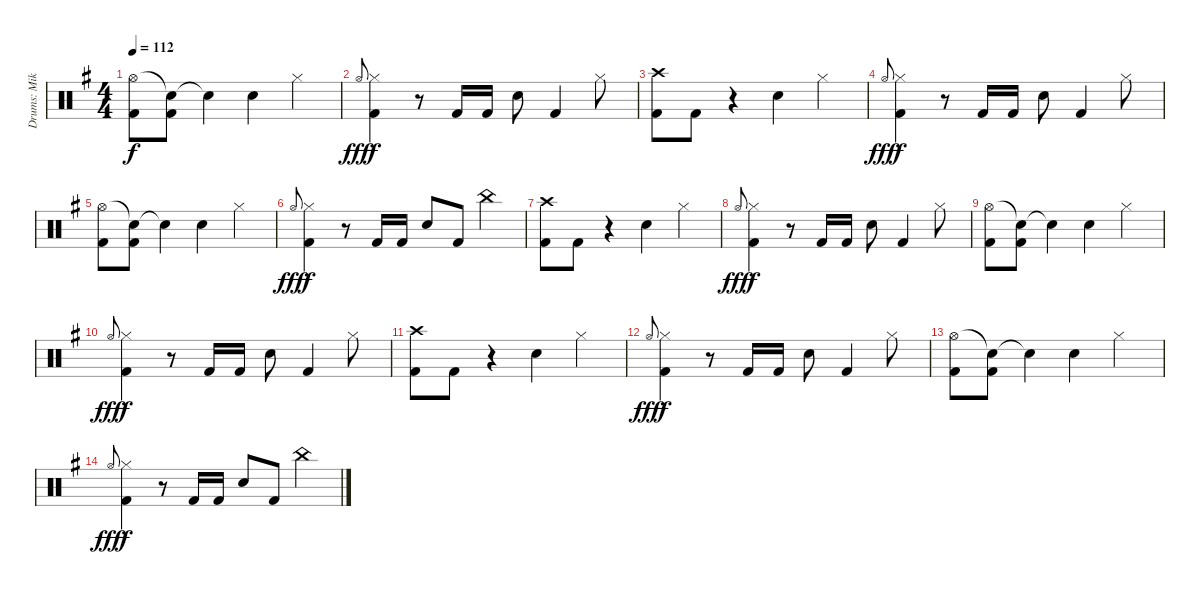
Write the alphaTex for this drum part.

\track ("Drums: Mike" "Drums: Mik") {instrument percussion}
\staff {score}
\articulation defaults
\ts (4 4)
\tempo 112
\clef neutral
\ks g
("Hi-Hat (open)" "Kick (hit) 2").8{dy f} ("Snare (hit)"{t} "Kick (hit) 2").8 "Snare (hit)"{t}.4 "Electric Snare (hit)".4 "Hi-Hat (closed)".4 |
"Hi-Hat (open)".8{gr onbeat dy fff} ("Hi-Hat (closed)" "Kick (hit) 2").4{dy f} r.8 "Kick (hit) 2".16 "Kick (hit) 2".16 "Electric Snare (hit)".8 "Kick (hit) 2".4 "Hi-Hat (closed)".8 |
("Crash high (hit)" "Kick (hit) 2").8 "Kick (hit) 2".8 r.4 "Electric Snare (hit)".4 "Hi-Hat (closed)".4 |
"Hi-Hat (open)".8{gr onbeat dy fff} ("Hi-Hat (closed)" "Kick (hit) 2").4{dy f} r.8 "Kick (hit) 2".16 "Kick (hit) 2".16 "Electric Snare (hit)".8 "Kick (hit) 2".4 "Hi-Hat (closed)".8 |
("Hi-Hat (open)" "Kick (hit) 2").8 ("Snare (hit)"{t} "Kick (hit) 2").8 "Snare (hit)"{t}.4 "Electric Snare (hit)".4 "Hi-Hat (closed)".4 |
"Hi-Hat (open)".8{gr onbeat dy fff} ("Hi-Hat (closed)" "Kick (hit) 2").4{dy f} r.8 "Kick (hit) 2".16 "Kick (hit) 2".16 "Electric Snare (hit)".8 "Kick (hit) 2".8 "China (hit)".4 |
("Crash high (hit)" "Kick (hit) 2").8 "Kick (hit) 2".8 r.4 "Electric Snare (hit)".4 "Hi-Hat (closed)".4 |
"Hi-Hat (open)".8{gr onbeat dy fff} ("Hi-Hat (closed)" "Kick (hit) 2").4{dy f} r.8 "Kick (hit) 2".16 "Kick (hit) 2".16 "Electric Snare (hit)".8 "Kick (hit) 2".4 "Hi-Hat (closed)".8 |
("Hi-Hat (open)" "Kick (hit) 2").8 ("Snare (hit)"{t} "Kick (hit) 2").8 "Snare (hit)"{t}.4 "Electric Snare (hit)".4 "Hi-Hat (closed)".4 |
"Hi-Hat (open)".8{gr onbeat dy fff} ("Hi-Hat (closed)" "Kick (hit) 2").4{dy f} r.8 "Kick (hit) 2".16 "Kick (hit) 2".16 "Electric Snare (hit)".8 "Kick (hit) 2".4 "Hi-Hat (closed)".8 |
("Crash high (hit)" "Kick (hit) 2").8 "Kick (hit) 2".8 r.4 "Electric Snare (hit)".4 "Hi-Hat (closed)".4 |
"Hi-Hat (open)".8{gr onbeat dy fff} ("Hi-Hat (closed)" "Kick (hit) 2").4{dy f} r.8 "Kick (hit) 2".16 "Kick (hit) 2".16 "Electric Snare (hit)".8 "Kick (hit) 2".4 "Hi-Hat (closed)".8 |
("Hi-Hat (open)" "Kick (hit) 2").8 ("Snare (hit)"{t} "Kick (hit) 2").8 "Snare (hit)"{t}.4 "Electric Snare (hit)".4 "Hi-Hat (closed)".4 |
"Hi-Hat (open)".8{gr onbeat dy fff} ("Hi-Hat (closed)" "Kick (hit) 2").4{dy f} r.8 "Kick (hit) 2".16 "Kick (hit) 2".16 "Electric Snare (hit)".8 "Kick (hit) 2".8 "China (hit)".4
